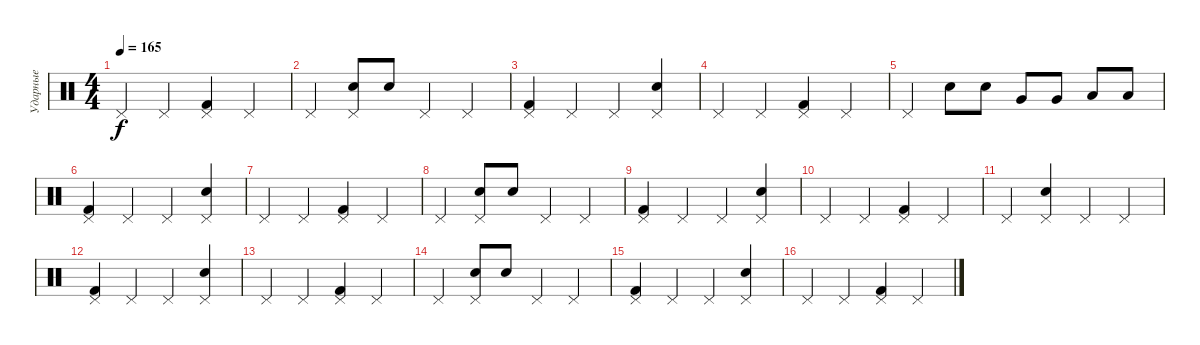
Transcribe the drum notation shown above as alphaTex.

\track ("Ударные" "Ударные") {instrument percussion}
\staff {score}
\articulation defaults
\ts (4 4)
\tempo 165
\clef neutral
\ks c "Pedal Hi-Hat (hit)".4{dy f} "Pedal Hi-Hat (hit)".4
("Pedal Hi-Hat (hit)" "Kick (hit) 2").4 "Pedal Hi-Hat (hit)".4 |
"Pedal Hi-Hat (hit)".4 ("Pedal Hi-Hat (hit)" "Snare (hit) 2").8 "Snare (hit) 2".8 "Pedal Hi-Hat (hit)".4 "Pedal Hi-Hat (hit)".4 |
("Pedal Hi-Hat (hit)" "Kick (hit) 2").4 "Pedal Hi-Hat (hit)".4 "Pedal Hi-Hat (hit)".4 ("Pedal Hi-Hat (hit)" "Snare (hit) 2").4 |
"Pedal Hi-Hat (hit)".4 "Pedal Hi-Hat (hit)".4 ("Pedal Hi-Hat (hit)" "Kick (hit) 2").4 "Pedal Hi-Hat (hit)".4 |
"Pedal Hi-Hat (hit)".4 "Snare (hit) 2".8 "Snare (hit) 2".8 "Very Low Tom (hit)".8 "Very Low Tom (hit)".8 "Low Floor Tom (hit)".8 "Low Floor Tom (hit)".8 |
("Pedal Hi-Hat (hit)" "Kick (hit) 2").4 "Pedal Hi-Hat (hit)".4 "Pedal Hi-Hat (hit)".4 ("Pedal Hi-Hat (hit)" "Snare (hit) 2").4 |
"Pedal Hi-Hat (hit)".4 "Pedal Hi-Hat (hit)".4 ("Pedal Hi-Hat (hit)" "Kick (hit) 2").4 "Pedal Hi-Hat (hit)".4 |
"Pedal Hi-Hat (hit)".4 ("Pedal Hi-Hat (hit)" "Snare (hit) 2").8 "Snare (hit) 2".8 "Pedal Hi-Hat (hit)".4 "Pedal Hi-Hat (hit)".4 |
("Pedal Hi-Hat (hit)" "Kick (hit) 2").4 "Pedal Hi-Hat (hit)".4 "Pedal Hi-Hat (hit)".4 ("Pedal Hi-Hat (hit)" "Snare (hit) 2").4 |
"Pedal Hi-Hat (hit)".4 "Pedal Hi-Hat (hit)".4 ("Pedal Hi-Hat (hit)" "Kick (hit) 2").4 "Pedal Hi-Hat (hit)".4 |
"Pedal Hi-Hat (hit)".4 ("Pedal Hi-Hat (hit)" "Snare (hit) 2").4 "Pedal Hi-Hat (hit)".4 "Pedal Hi-Hat (hit)".4 |
("Pedal Hi-Hat (hit)" "Kick (hit) 2").4 "Pedal Hi-Hat (hit)".4 "Pedal Hi-Hat (hit)".4 ("Pedal Hi-Hat (hit)" "Snare (hit) 2").4 |
"Pedal Hi-Hat (hit)".4 "Pedal Hi-Hat (hit)".4 ("Pedal Hi-Hat (hit)" "Kick (hit) 2").4 "Pedal Hi-Hat (hit)".4 |
"Pedal Hi-Hat (hit)".4 ("Pedal Hi-Hat (hit)" "Snare (hit) 2").8 "Snare (hit) 2".8 "Pedal Hi-Hat (hit)".4 "Pedal Hi-Hat (hit)".4 |
("Pedal Hi-Hat (hit)" "Kick (hit) 2").4 "Pedal Hi-Hat (hit)".4 "Pedal Hi-Hat (hit)".4 ("Pedal Hi-Hat (hit)" "Snare (hit) 2").4 |
"Pedal Hi-Hat (hit)".4 "Pedal Hi-Hat (hit)".4 ("Pedal Hi-Hat (hit)" "Kick (hit) 2").4 "Pedal Hi-Hat (hit)".4
